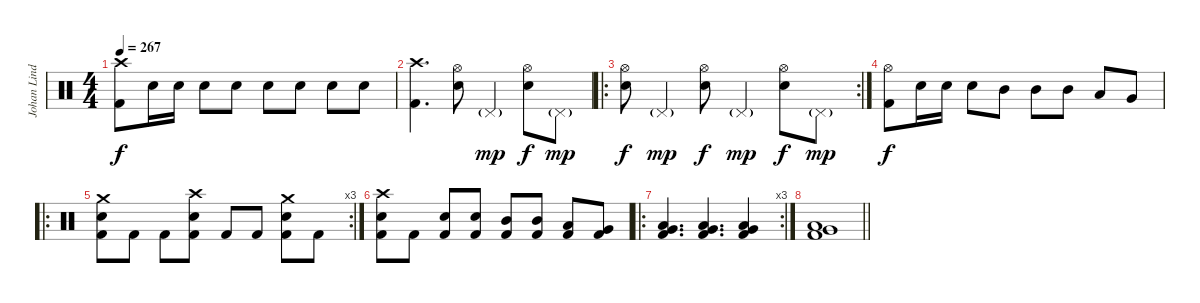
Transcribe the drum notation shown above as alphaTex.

\track ("Johan Lindstrand" "Johan Lind") {instrument percussion}
\staff {score}
\articulation defaults
\ts (4 4)
\tempo 267
\clef neutral
\ks c
("Crash high (hit)" "Kick (hit) 2").8{dy f} "Electric Snare (hit)".16 "Electric Snare (hit)".16 "Electric Snare (hit)".8 "Electric Snare (hit)".8 "Electric Snare (hit)".8 "Electric Snare (hit)".8 "Electric Snare (hit)".8 "Electric Snare (hit)".8 |
("Crash high (hit)" "Kick (hit) 2").4{d} ("Hi-Hat (open)" "Electric Snare (hit)").8 "Pedal Hi-Hat (hit)"{g}.4{dy mp} ("Hi-Hat (open)" "Electric Snare (hit)").8{dy f} "Pedal Hi-Hat (hit)"{g}.8{dy mp} |
\ro
\rc 2
("Hi-Hat (open)" "Electric Snare (hit)").8{dy f} "Pedal Hi-Hat (hit)"{g}.4{dy mp} ("Hi-Hat (open)" "Electric Snare (hit)").8{dy f} "Pedal Hi-Hat (hit)"{g}.4{dy mp} ("Hi-Hat (open)" "Electric Snare (hit)").8{dy f} "Pedal Hi-Hat (hit)"{g}.8{dy mp} |
("Hi-Hat (open)" "Kick (hit) 2").8{dy f} "Electric Snare (hit)".16 "Electric Snare (hit)".16 "Electric Snare (hit)".8 "Mid Tom (hit)".8 "Mid Tom (hit)".8 "Mid Tom (hit)".8 "Low Tom (hit)".8 "Very Low Tom (hit)".8 |
\ro
\rc 3
("Crash medium (hit)" "Electric Snare (hit)" "Kick (hit) 2").8 "Kick (hit) 2".8 "Kick (hit) 2".8 ("Crash high (hit)" "Electric Snare (hit)" "Kick (hit) 2").8 "Kick (hit) 2".8 "Kick (hit) 2".8 ("Crash medium (hit)" "Electric Snare (hit)" "Kick (hit) 2").8 "Kick (hit) 2".8 |
("Crash high (hit)" "Electric Snare (hit)" "Kick (hit) 2").8 "Kick (hit) 2".8 ("Electric Snare (hit)" "Kick (hit) 2").8 ("Electric Snare (hit)" "Kick (hit) 2").8 ("Mid Tom (hit)" "Kick (hit) 2").8 ("Mid Tom (hit)" "Kick (hit) 2").8 ("Low Tom (hit)" "Kick (hit) 2").8 ("Very Low Tom (hit)" "Kick (hit) 2").8 |
\ro
\rc 3
("Very Low Tom (hit)" "Low Floor Tom (hit)" "Kick (hit) 2").4{d} ("Very Low Tom (hit)" "Low Floor Tom (hit)" "Kick (hit) 2").4{d} ("Very Low Tom (hit)" "Low Floor Tom (hit)" "Kick (hit) 2").4 |
\barLineRight lightlight
("Very Low Tom (hit)" "Low Floor Tom (hit)" "Kick (hit) 2").1
